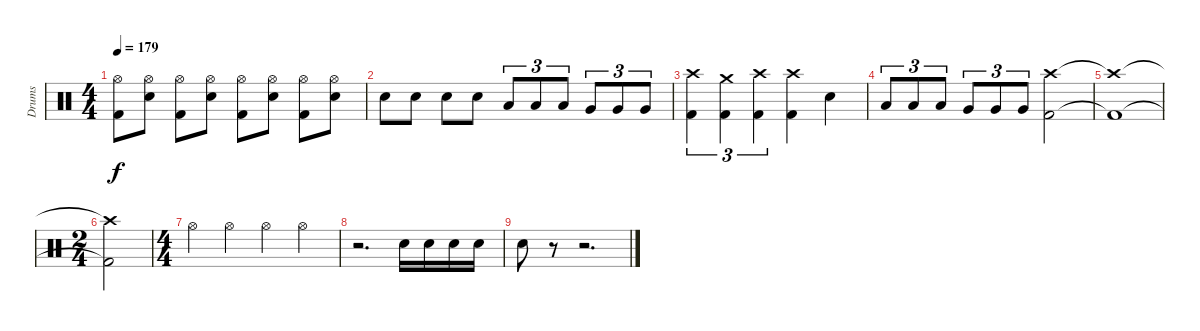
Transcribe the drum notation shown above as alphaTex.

\track ("Drums" "Drums") {instrument percussion}
\staff {score}
\articulation defaults
\ts (4 4)
\tempo 179
\clef neutral
\ks c
("Hi-Hat (open)" "Kick (hit) 2").8{dy f} ("Hi-Hat (open)" "Electric Snare (hit)").8 ("Hi-Hat (open)" "Kick (hit) 2").8 ("Hi-Hat (open)" "Electric Snare (hit)").8 ("Hi-Hat (open)" "Kick (hit) 2").8 ("Hi-Hat (open)" "Electric Snare (hit)").8 ("Hi-Hat (open)" "Kick (hit) 2").8 ("Hi-Hat (open)" "Electric Snare (hit)").8 |
"Electric Snare (hit)".8 "Electric Snare (hit)".8 "Electric Snare (hit)".8 "Electric Snare (hit)".8 "Low Tom (hit)".8{tu (3 2)} "Low Tom (hit)".8{tu (3 2)} "Low Tom (hit)".8{tu (3 2)} "Very Low Tom (hit)".8{tu (3 2)} "Very Low Tom (hit)".8{tu (3 2)} "Very Low Tom (hit)".8{tu (3 2)} |
("Crash high (hit)" "Kick (hit) 2").4{tu (3 2)} ("Crash medium (hit)" "Kick (hit) 2").4{tu (3 2)} ("Crash high (hit)" "Kick (hit) 2").4{tu (3 2)} ("Crash high (hit)" "Kick (hit) 2").4 "Electric Snare (hit)".4 |
"Low Tom (hit)".8{tu (3 2)} "Low Tom (hit)".8{tu (3 2)} "Low Tom (hit)".8{tu (3 2)} "Very Low Tom (hit)".8{tu (3 2)} "Very Low Tom (hit)".8{tu (3 2)} "Very Low Tom (hit)".8{tu (3 2)} ("Crash high (hit)" "Kick (hit) 2").2 |
("Crash high (hit)"{t} "Kick (hit) 2"{t}).1 |
\ts (2 4)
("Crash high (hit)"{t} "Kick (hit) 2"{t}).2 |
\ts (4 4)
"Hi-Hat (open)".4 "Hi-Hat (open)".4 "Hi-Hat (open)".4 "Hi-Hat (open)".4 |
r.2{d} "Electric Snare (hit)".16 "Electric Snare (hit)".16 "Electric Snare (hit)".16 "Electric Snare (hit)".16 |
"Electric Snare (hit)".8 r.8 r.2{d}
